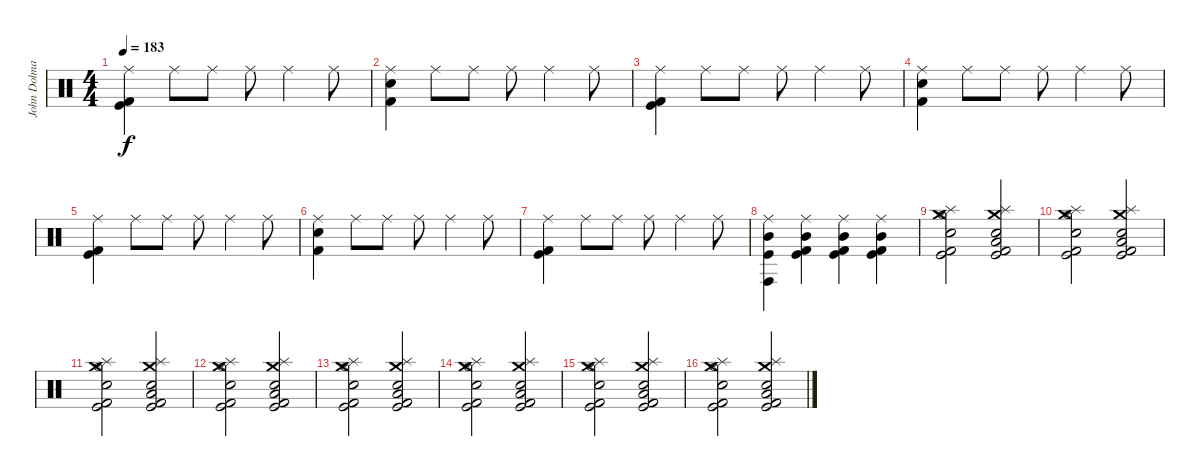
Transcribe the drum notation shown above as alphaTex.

\track ("John Dolmayan" "John Dolma") {instrument percussion}
\staff {score}
\articulation defaults
\ts (4 4)
\tempo 183
\clef neutral
\ks c
("Ride (middle)" "Kick (hit)" "Kick (hit) 2").4{dy f} "Ride (middle)".8 "Ride (middle)".8 "Ride (middle)".8 "Ride (middle)".4 "Ride (middle)".8 |
("Ride (middle)" "Electric Snare (hit)" "Kick (hit) 2").4 "Ride (middle)".8 "Ride (middle)".8 "Ride (middle)".8 "Ride (middle)".4 "Ride (middle)".8 |
("Ride (middle)" "Kick (hit)" "Kick (hit) 2").4 "Ride (middle)".8 "Ride (middle)".8 "Ride (middle)".8 "Ride (middle)".4 "Ride (middle)".8 |
("Ride (middle)" "Electric Snare (hit)" "Kick (hit) 2").4 "Ride (middle)".8 "Ride (middle)".8 "Ride (middle)".8 "Ride (middle)".4 "Ride (middle)".8 |
("Ride (middle)" "Kick (hit)" "Kick (hit) 2").4 "Ride (middle)".8 "Ride (middle)".8 "Ride (middle)".8 "Ride (middle)".4 "Ride (middle)".8 |
("Ride (middle)" "Electric Snare (hit)" "Kick (hit) 2").4 "Ride (middle)".8 "Ride (middle)".8 "Ride (middle)".8 "Ride (middle)".4 "Ride (middle)".8 |
("Ride (middle)" "Kick (hit)" "Kick (hit) 2").4 "Ride (middle)".8 "Ride (middle)".8 "Ride (middle)".8 "Ride (middle)".4 "Ride (middle)".8 |
("Ride (middle)" "Kick (hit)" "Conga high (hit)" "Mid Tom (hit)").4 ("Ride (middle)" "Kick (hit)" "Kick (hit) 2" "Mid Tom (hit)").4 ("Ride (middle)" "Kick (hit)" "Kick (hit) 2" "Mid Tom (hit)").4 ("Ride (middle)" "Kick (hit)" "Kick (hit) 2" "Mid Tom (hit)").4 |
("Hi-Hat (open)" "Crash medium (hit)" "Splash (hit)" "Kick (hit)" "Kick (hit) 2" "Electric Snare (hit)").2 ("Splash (hit)" "Crash medium (hit)" "Kick (hit) 2" "Kick (hit)" "Low Tom (hit)" "Electric Snare (hit)").2 |
("Hi-Hat (open)" "Crash medium (hit)" "Splash (hit)" "Kick (hit)" "Kick (hit) 2" "Electric Snare (hit)").2 ("Splash (hit)" "Crash medium (hit)" "Kick (hit) 2" "Kick (hit)" "Low Tom (hit)" "Electric Snare (hit)").2 |
("Hi-Hat (open)" "Crash medium (hit)" "Splash (hit)" "Kick (hit)" "Kick (hit) 2" "Electric Snare (hit)").2 ("Splash (hit)" "Crash medium (hit)" "Kick (hit) 2" "Kick (hit)" "Low Tom (hit)" "Electric Snare (hit)").2 |
("Hi-Hat (open)" "Crash medium (hit)" "Splash (hit)" "Kick (hit)" "Kick (hit) 2" "Electric Snare (hit)").2 ("Splash (hit)" "Crash medium (hit)" "Kick (hit) 2" "Kick (hit)" "Low Tom (hit)" "Electric Snare (hit)").2 |
("Hi-Hat (open)" "Crash medium (hit)" "Splash (hit)" "Kick (hit)" "Kick (hit) 2" "Electric Snare (hit)").2 ("Splash (hit)" "Crash medium (hit)" "Kick (hit) 2" "Kick (hit)" "Low Tom (hit)" "Electric Snare (hit)").2 |
("Hi-Hat (open)" "Crash medium (hit)" "Splash (hit)" "Kick (hit)" "Kick (hit) 2" "Electric Snare (hit)").2 ("Splash (hit)" "Crash medium (hit)" "Kick (hit) 2" "Kick (hit)" "Low Tom (hit)" "Electric Snare (hit)").2 |
("Hi-Hat (open)" "Crash medium (hit)" "Splash (hit)" "Kick (hit)" "Kick (hit) 2" "Electric Snare (hit)").2 ("Splash (hit)" "Crash medium (hit)" "Kick (hit) 2" "Kick (hit)" "Low Tom (hit)" "Electric Snare (hit)").2 |
("Hi-Hat (open)" "Crash medium (hit)" "Splash (hit)" "Kick (hit)" "Kick (hit) 2" "Electric Snare (hit)").2 ("Splash (hit)" "Crash medium (hit)" "Kick (hit) 2" "Kick (hit)" "Low Tom (hit)" "Electric Snare (hit)").2
